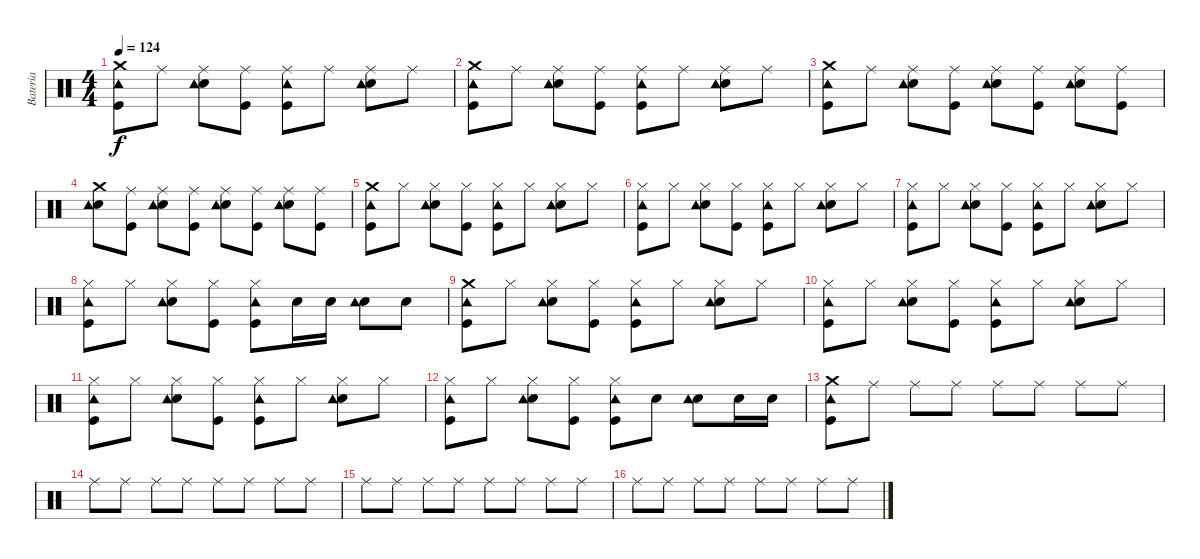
\track ("Bateria" "Bateria") {instrument percussion}
\staff {score}
\articulation defaults
\ts (4 4)
\tempo 124
\clef neutral
\ks c
("Crash medium (hit)" "Kick (hit)" "Tambourine (hit)").8{dy f} "Ride (middle)".8 ("Ride (middle)" "Snare (hit) 2" "Tambourine (hit)").8 ("Ride (middle)" "Kick (hit)").8 ("Ride (middle)" "Kick (hit)" "Tambourine (hit)").8 "Ride (middle)".8 ("Ride (middle)" "Snare (hit) 2" "Tambourine (hit)").8 "Ride (middle)".8 |
("Crash medium (hit)" "Kick (hit)" "Tambourine (hit)").8 "Ride (middle)".8 ("Ride (middle)" "Snare (hit) 2" "Tambourine (hit)").8 ("Ride (middle)" "Kick (hit)").8 ("Ride (middle)" "Kick (hit)" "Tambourine (hit)").8 "Ride (middle)".8 ("Ride (middle)" "Snare (hit) 2" "Tambourine (hit)").8 "Ride (middle)".8 |
("Crash medium (hit)" "Kick (hit)" "Tambourine (hit)").8 "Ride (middle)".8 ("Ride (middle)" "Snare (hit) 2" "Tambourine (hit)").8 ("Ride (middle)" "Kick (hit)").8 ("Ride (middle)" "Snare (hit) 2" "Tambourine (hit)").8 ("Ride (middle)" "Kick (hit)").8 ("Ride (middle)" "Snare (hit) 2" "Tambourine (hit)").8 ("Ride (middle)" "Kick (hit)").8 |
("Crash medium (hit)" "Snare (hit) 2" "Tambourine (hit)").8 ("Ride (middle)" "Kick (hit)").8 ("Ride (middle)" "Snare (hit) 2" "Tambourine (hit)").8 ("Ride (middle)" "Kick (hit)").8 ("Ride (middle)" "Snare (hit) 2" "Tambourine (hit)").8 ("Ride (middle)" "Kick (hit)").8 ("Ride (middle)" "Snare (hit) 2" "Tambourine (hit)").8 ("Ride (middle)" "Kick (hit)").8 |
("Crash medium (hit)" "Kick (hit)" "Tambourine (hit)").8 "Hi-Hat (closed)".8 ("Hi-Hat (closed)" "Snare (hit) 2" "Tambourine (hit)").8 ("Hi-Hat (closed)" "Kick (hit)").8 ("Hi-Hat (closed)" "Kick (hit)" "Tambourine (hit)").8 "Hi-Hat (closed)".8 ("Hi-Hat (closed)" "Snare (hit) 2" "Tambourine (hit)").8 "Hi-Hat (closed)".8 |
("Hi-Hat (closed)" "Kick (hit)" "Tambourine (hit)").8 "Hi-Hat (closed)".8 ("Hi-Hat (closed)" "Snare (hit) 2" "Tambourine (hit)").8 ("Hi-Hat (closed)" "Kick (hit)").8 ("Hi-Hat (closed)" "Kick (hit)" "Tambourine (hit)").8 "Hi-Hat (closed)".8 ("Hi-Hat (closed)" "Snare (hit) 2" "Tambourine (hit)").8 "Hi-Hat (closed)".8 |
("Hi-Hat (closed)" "Kick (hit)" "Tambourine (hit)").8 "Hi-Hat (closed)".8 ("Hi-Hat (closed)" "Snare (hit) 2" "Tambourine (hit)").8 ("Hi-Hat (closed)" "Kick (hit)").8 ("Hi-Hat (closed)" "Kick (hit)" "Tambourine (hit)").8 "Hi-Hat (closed)".8 ("Hi-Hat (closed)" "Snare (hit) 2" "Tambourine (hit)").8 "Hi-Hat (closed)".8 |
("Hi-Hat (closed)" "Kick (hit)" "Tambourine (hit)").8 "Hi-Hat (closed)".8 ("Hi-Hat (closed)" "Snare (hit) 2" "Tambourine (hit)").8 ("Hi-Hat (closed)" "Kick (hit)").8 ("Hi-Hat (closed)" "Kick (hit)" "Tambourine (hit)").8 "Snare (hit) 2".16 "Snare (hit) 2".16 ("Snare (hit) 2" "Tambourine (hit)").8 "Snare (hit) 2".8 |
("Crash medium (hit)" "Kick (hit)" "Tambourine (hit)").8 "Hi-Hat (closed)".8 ("Hi-Hat (closed)" "Snare (hit) 2" "Tambourine (hit)").8 ("Hi-Hat (closed)" "Kick (hit)").8 ("Hi-Hat (closed)" "Kick (hit)" "Tambourine (hit)").8 "Hi-Hat (closed)".8 ("Hi-Hat (closed)" "Snare (hit) 2" "Tambourine (hit)").8 "Hi-Hat (closed)".8 |
("Hi-Hat (closed)" "Kick (hit)" "Tambourine (hit)").8 "Hi-Hat (closed)".8 ("Hi-Hat (closed)" "Snare (hit) 2" "Tambourine (hit)").8 ("Hi-Hat (closed)" "Kick (hit)").8 ("Hi-Hat (closed)" "Kick (hit)" "Tambourine (hit)").8 "Hi-Hat (closed)".8 ("Hi-Hat (closed)" "Snare (hit) 2" "Tambourine (hit)").8 "Hi-Hat (closed)".8 |
("Hi-Hat (closed)" "Kick (hit)" "Tambourine (hit)").8 "Hi-Hat (closed)".8 ("Hi-Hat (closed)" "Snare (hit) 2" "Tambourine (hit)").8 ("Hi-Hat (closed)" "Kick (hit)").8 ("Hi-Hat (closed)" "Kick (hit)" "Tambourine (hit)").8 "Hi-Hat (closed)".8 ("Hi-Hat (closed)" "Snare (hit) 2" "Tambourine (hit)").8 "Hi-Hat (closed)".8 |
("Hi-Hat (closed)" "Kick (hit)" "Tambourine (hit)").8 "Hi-Hat (closed)".8 ("Hi-Hat (closed)" "Snare (hit) 2" "Tambourine (hit)").8 ("Hi-Hat (closed)" "Kick (hit)").8 ("Hi-Hat (closed)" "Kick (hit)" "Tambourine (hit)").8 "Snare (hit) 2".8 ("Snare (hit) 2" "Tambourine (hit)").8 "Snare (hit) 2".16 "Snare (hit) 2".16 |
("Kick (hit)" "Crash medium (hit)" "Tambourine (hit)").8 "Ride (middle)".8 "Ride (middle)".8 "Ride (middle)".8 "Ride (middle)".8 "Ride (middle)".8 "Ride (middle)".8 "Ride (middle)".8 |
"Ride (middle)".8 "Ride (middle)".8 "Ride (middle)".8 "Ride (middle)".8 "Ride (middle)".8 "Ride (middle)".8 "Ride (middle)".8 "Ride (middle)".8 |
"Ride (middle)".8 "Ride (middle)".8 "Ride (middle)".8 "Ride (middle)".8 "Ride (middle)".8 "Ride (middle)".8 "Ride (middle)".8 "Ride (middle)".8 |
"Ride (middle)".8 "Ride (middle)".8 "Ride (middle)".8 "Ride (middle)".8 "Ride (middle)".8 "Ride (middle)".8 "Ride (middle)".8 "Ride (middle)".8
